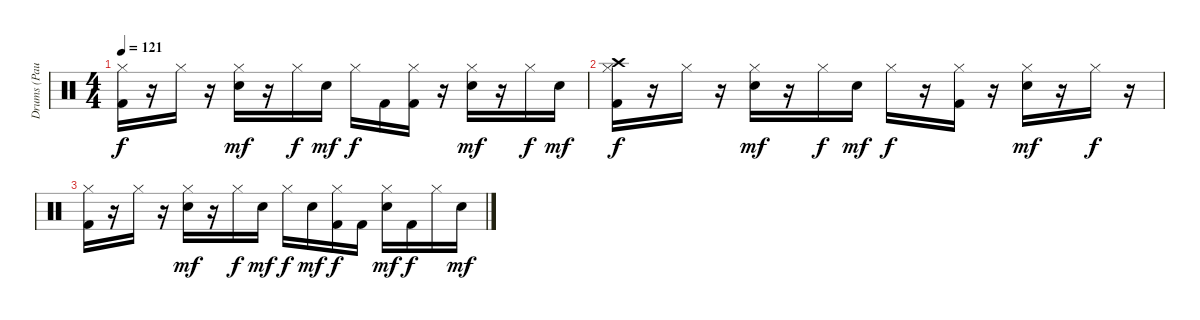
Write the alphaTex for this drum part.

\track ("Drums (Paul)" "Drums (Pau") {instrument percussion}
\staff {score}
\articulation defaults
\ts (4 4)
\tempo 121
\clef neutral
\ks c
("Hi-Hat (closed)" "Kick (hit) 2").16{dy f} r.16 "Hi-Hat (closed)".16 r.16 ("Hi-Hat (closed)" "Snare (hit) 2").16{dy mf} r.16 "Hi-Hat (closed)".16{dy f} "Snare (hit) 2".16{dy mf} "Hi-Hat (closed)".16{dy f} "Kick (hit) 2".16 ("Hi-Hat (closed)" "Kick (hit) 2").16 r.16 ("Hi-Hat (closed)" "Snare (hit) 2").16{dy mf} r.16 "Hi-Hat (closed)".16{dy f} "Snare (hit) 2".16{dy mf} |
("Hi-Hat (closed)" "Crash high (hit)" "Kick (hit) 2").16{dy f} r.16 "Hi-Hat (closed)".16 r.16 ("Hi-Hat (closed)" "Snare (hit) 2").16{dy mf} r.16 "Hi-Hat (closed)".16{dy f} "Snare (hit) 2".16{dy mf} "Hi-Hat (closed)".16{dy f} r.16 ("Hi-Hat (closed)" "Kick (hit) 2").16 r.16 ("Hi-Hat (closed)" "Snare (hit) 2").16{dy mf} r.16 "Hi-Hat (closed)".16{dy f} r.16 |
("Hi-Hat (closed)" "Kick (hit) 2").16 r.16 "Hi-Hat (closed)".16 r.16 ("Hi-Hat (closed)" "Snare (hit) 2").16{dy mf} r.16 "Hi-Hat (closed)".16{dy f} "Snare (hit) 2".16{dy mf} "Hi-Hat (closed)".16{dy f} "Snare (hit) 2".16{dy mf} ("Hi-Hat (closed)" "Kick (hit) 2").16{dy f} "Kick (hit) 2".16 ("Hi-Hat (closed)" "Snare (hit) 2").16{dy mf} "Kick (hit) 2".16{dy f} "Hi-Hat (closed)".16 "Snare (hit) 2".16{dy mf}
